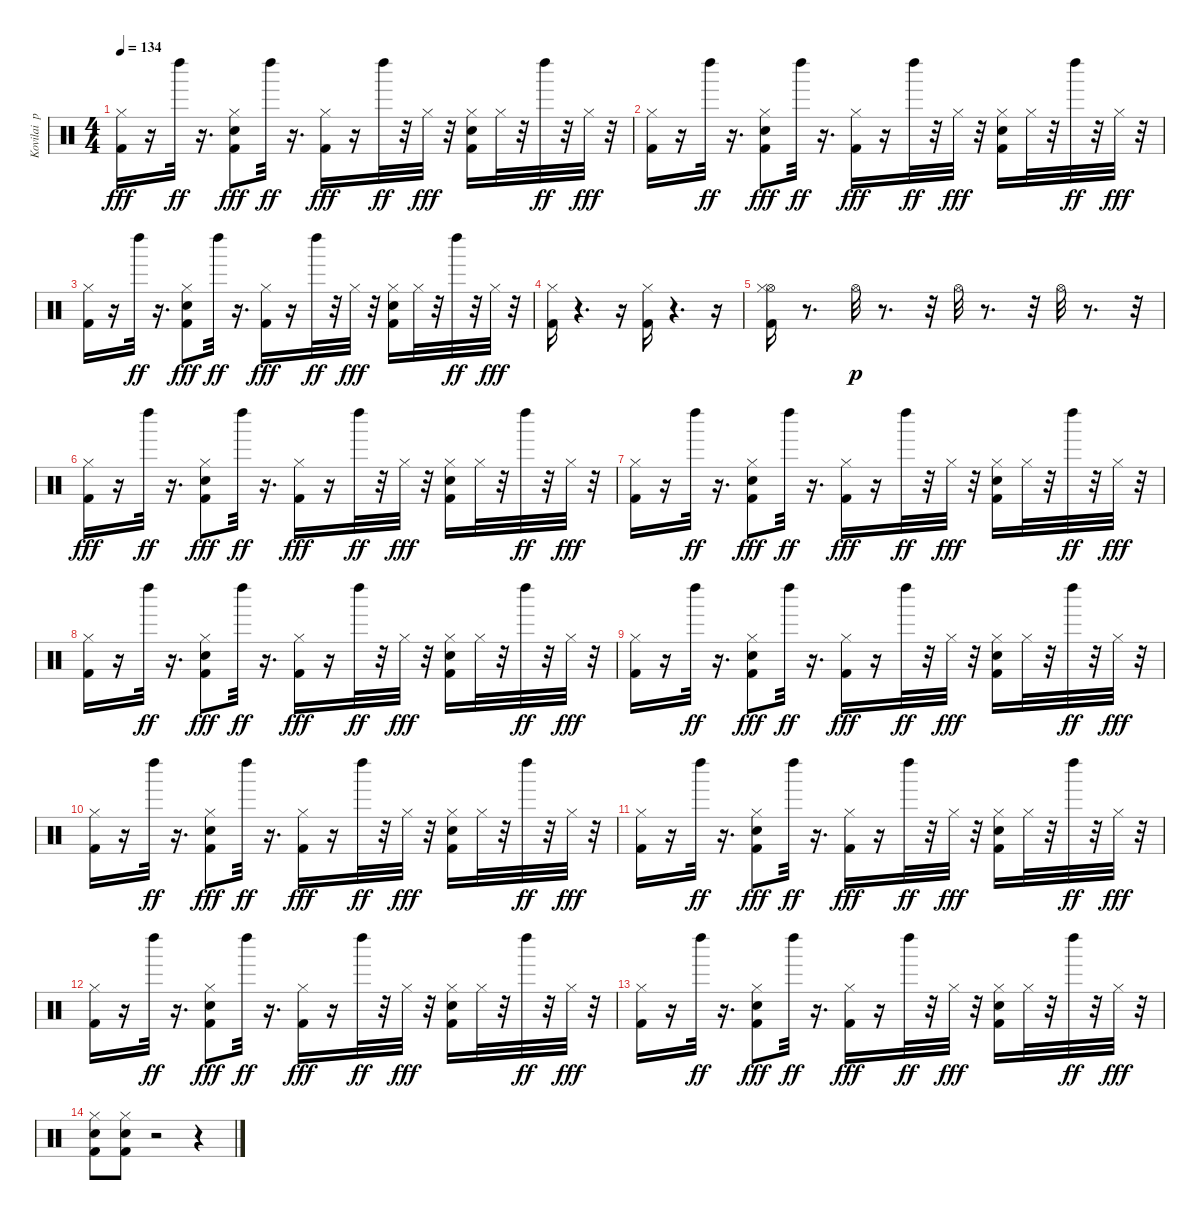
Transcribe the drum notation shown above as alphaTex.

\track ("Kovilai  po tihonechky:" "Kovilai  p") {instrument percussion}
\staff {score}
\articulation defaults
\ts (4 4)
\tempo 134
\clef neutral
\ks c
("Hi-Hat (closed)" "Kick (hit) 2").16{dy fff} r.16 "Left Maraca (hit)".32{dy ff} r.16{d} ("Snare (hit) 2" "Hi-Hat (closed)" "Kick (hit) 2").8{dy fff} "Left Maraca (hit)".32{dy ff} r.16{d} ("Hi-Hat (closed)" "Kick (hit) 2").16{dy fff} r.16 "Left Maraca (hit)".32{dy ff} r.32 "Hi-Hat (closed)".32{dy fff} r.32 ("Hi-Hat (closed)" "Snare (hit) 2" "Kick (hit) 2").16 "Hi-Hat (closed)".32 r.32 "Left Maraca (hit)".32{dy ff} r.32 "Hi-Hat (closed)".32{dy fff} r.32 |
("Hi-Hat (closed)" "Kick (hit) 2").16 r.16 "Left Maraca (hit)".32{dy ff} r.16{d} ("Snare (hit) 2" "Hi-Hat (closed)" "Kick (hit) 2").8{dy fff} "Left Maraca (hit)".32{dy ff} r.16{d} ("Hi-Hat (closed)" "Kick (hit) 2").16{dy fff} r.16 "Left Maraca (hit)".32{dy ff} r.32 "Hi-Hat (closed)".32{dy fff} r.32 ("Hi-Hat (closed)" "Snare (hit) 2" "Kick (hit) 2").16 "Hi-Hat (closed)".32 r.32 "Left Maraca (hit)".32{dy ff} r.32 "Hi-Hat (closed)".32{dy fff} r.32 |
("Hi-Hat (closed)" "Kick (hit) 2").16 r.16 "Left Maraca (hit)".32{dy ff} r.16{d} ("Snare (hit) 2" "Hi-Hat (closed)" "Kick (hit) 2").8{dy fff} "Left Maraca (hit)".32{dy ff} r.16{d} ("Hi-Hat (closed)" "Kick (hit) 2").16{dy fff} r.16 "Left Maraca (hit)".32{dy ff} r.32 "Hi-Hat (closed)".32{dy fff} r.32 ("Hi-Hat (closed)" "Snare (hit) 2" "Kick (hit) 2").16 "Hi-Hat (closed)".32 r.32 "Left Maraca (hit)".32{dy ff} r.32 "Hi-Hat (closed)".32{dy fff} r.32 |
("Hi-Hat (closed)" "Kick (hit) 2").16 r.4{d} r.16 ("Hi-Hat (closed)" "Kick (hit) 2").16 r.4{d} r.16 |
("Hi-Hat (open)" "Hi-Hat (closed)" "Kick (hit) 2").16 r.8{d} "Hi-Hat (open)".32{dy p} r.8{d} r.32 "Hi-Hat (open)".32 r.8{d} r.32 "Hi-Hat (open)".32 r.8{d} r.32 |
("Hi-Hat (closed)" "Kick (hit) 2").16{dy fff} r.16 "Left Maraca (hit)".32{dy ff} r.16{d} ("Snare (hit) 2" "Hi-Hat (closed)" "Kick (hit) 2").8{dy fff} "Left Maraca (hit)".32{dy ff} r.16{d} ("Hi-Hat (closed)" "Kick (hit) 2").16{dy fff} r.16 "Left Maraca (hit)".32{dy ff} r.32 "Hi-Hat (closed)".32{dy fff} r.32 ("Hi-Hat (closed)" "Snare (hit) 2" "Kick (hit) 2").16 "Hi-Hat (closed)".32 r.32 "Left Maraca (hit)".32{dy ff} r.32 "Hi-Hat (closed)".32{dy fff} r.32 |
("Hi-Hat (closed)" "Kick (hit) 2").16 r.16 "Left Maraca (hit)".32{dy ff} r.16{d} ("Snare (hit) 2" "Hi-Hat (closed)" "Kick (hit) 2").8{dy fff} "Left Maraca (hit)".32{dy ff} r.16{d} ("Hi-Hat (closed)" "Kick (hit) 2").16{dy fff} r.16 "Left Maraca (hit)".32{dy ff} r.32 "Hi-Hat (closed)".32{dy fff} r.32 ("Hi-Hat (closed)" "Snare (hit) 2" "Kick (hit) 2").16 "Hi-Hat (closed)".32 r.32 "Left Maraca (hit)".32{dy ff} r.32 "Hi-Hat (closed)".32{dy fff} r.32 |
("Hi-Hat (closed)" "Kick (hit) 2").16 r.16 "Left Maraca (hit)".32{dy ff} r.16{d} ("Snare (hit) 2" "Hi-Hat (closed)" "Kick (hit) 2").8{dy fff} "Left Maraca (hit)".32{dy ff} r.16{d} ("Hi-Hat (closed)" "Kick (hit) 2").16{dy fff} r.16 "Left Maraca (hit)".32{dy ff} r.32 "Hi-Hat (closed)".32{dy fff} r.32 ("Hi-Hat (closed)" "Snare (hit) 2" "Kick (hit) 2").16 "Hi-Hat (closed)".32 r.32 "Left Maraca (hit)".32{dy ff} r.32 "Hi-Hat (closed)".32{dy fff} r.32 |
("Hi-Hat (closed)" "Kick (hit) 2").16 r.16 "Left Maraca (hit)".32{dy ff} r.16{d} ("Snare (hit) 2" "Hi-Hat (closed)" "Kick (hit) 2").8{dy fff} "Left Maraca (hit)".32{dy ff} r.16{d} ("Hi-Hat (closed)" "Kick (hit) 2").16{dy fff} r.16 "Left Maraca (hit)".32{dy ff} r.32 "Hi-Hat (closed)".32{dy fff} r.32 ("Hi-Hat (closed)" "Snare (hit) 2" "Kick (hit) 2").16 "Hi-Hat (closed)".32 r.32 "Left Maraca (hit)".32{dy ff} r.32 "Hi-Hat (closed)".32{dy fff} r.32 |
("Hi-Hat (closed)" "Kick (hit) 2").16 r.16 "Left Maraca (hit)".32{dy ff} r.16{d} ("Snare (hit) 2" "Hi-Hat (closed)" "Kick (hit) 2").8{dy fff} "Left Maraca (hit)".32{dy ff} r.16{d} ("Hi-Hat (closed)" "Kick (hit) 2").16{dy fff} r.16 "Left Maraca (hit)".32{dy ff} r.32 "Hi-Hat (closed)".32{dy fff} r.32 ("Hi-Hat (closed)" "Snare (hit) 2" "Kick (hit) 2").16 "Hi-Hat (closed)".32 r.32 "Left Maraca (hit)".32{dy ff} r.32 "Hi-Hat (closed)".32{dy fff} r.32 |
("Hi-Hat (closed)" "Kick (hit) 2").16 r.16 "Left Maraca (hit)".32{dy ff} r.16{d} ("Snare (hit) 2" "Hi-Hat (closed)" "Kick (hit) 2").8{dy fff} "Left Maraca (hit)".32{dy ff} r.16{d} ("Hi-Hat (closed)" "Kick (hit) 2").16{dy fff} r.16 "Left Maraca (hit)".32{dy ff} r.32 "Hi-Hat (closed)".32{dy fff} r.32 ("Hi-Hat (closed)" "Snare (hit) 2" "Kick (hit) 2").16 "Hi-Hat (closed)".32 r.32 "Left Maraca (hit)".32{dy ff} r.32 "Hi-Hat (closed)".32{dy fff} r.32 |
("Hi-Hat (closed)" "Kick (hit) 2").16 r.16 "Left Maraca (hit)".32{dy ff} r.16{d} ("Snare (hit) 2" "Hi-Hat (closed)" "Kick (hit) 2").8{dy fff} "Left Maraca (hit)".32{dy ff} r.16{d} ("Hi-Hat (closed)" "Kick (hit) 2").16{dy fff} r.16 "Left Maraca (hit)".32{dy ff} r.32 "Hi-Hat (closed)".32{dy fff} r.32 ("Hi-Hat (closed)" "Snare (hit) 2" "Kick (hit) 2").16 "Hi-Hat (closed)".32 r.32 "Left Maraca (hit)".32{dy ff} r.32 "Hi-Hat (closed)".32{dy fff} r.32 |
("Hi-Hat (closed)" "Kick (hit) 2").16 r.16 "Left Maraca (hit)".32{dy ff} r.16{d} ("Snare (hit) 2" "Hi-Hat (closed)" "Kick (hit) 2").8{dy fff} "Left Maraca (hit)".32{dy ff} r.16{d} ("Hi-Hat (closed)" "Kick (hit) 2").16{dy fff} r.16 "Left Maraca (hit)".32{dy ff} r.32 "Hi-Hat (closed)".32{dy fff} r.32 ("Hi-Hat (closed)" "Snare (hit) 2" "Kick (hit) 2").16 "Hi-Hat (closed)".32 r.32 "Left Maraca (hit)".32{dy ff} r.32 "Hi-Hat (closed)".32{dy fff} r.32 |
("Snare (hit) 2" "Hi-Hat (closed)" "Kick (hit) 2").8 ("Snare (hit) 2" "Hi-Hat (closed)" "Kick (hit) 2").8 r.2 r.4
